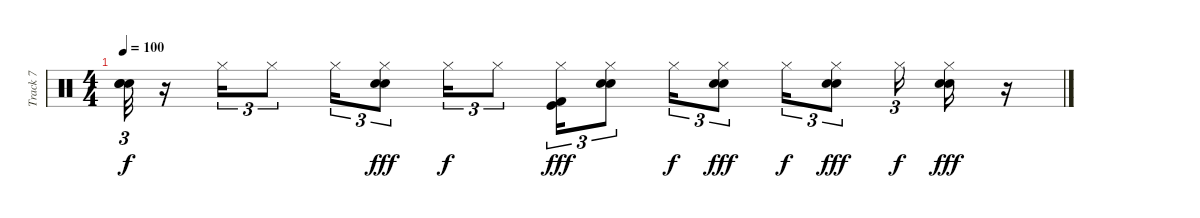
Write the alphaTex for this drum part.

\track ("Track 7" "Track 7") {instrument percussion}
\staff {score}
\articulation defaults
\ts (4 4)
\tempo 100
\clef neutral
\ks c
("Snare (hit)"{t} "Snare (hit)"{t} "Snare (hit)"{t}).32{tu (3 2) dy f} r.16 "Hi-Hat (closed)".16{tu (3 2)} "Hi-Hat (closed)".8{tu (3 2)} "Hi-Hat (closed)".16{tu (3 2)} ("Hi-Hat (closed)" "Snare (hit) 2" "Electric Snare (hit)").8{tu (3 2) dy fff} "Hi-Hat (closed)".16{tu (3 2) dy f} "Hi-Hat (closed)".8{tu (3 2)} ("Kick (hit)" "Kick (hit) 2" "Hi-Hat (closed)").16{tu (3 2) dy fff} ("Electric Snare (hit)" "Snare (hit) 2" "Hi-Hat (closed)").8{tu (3 2)} "Hi-Hat (closed)".16{tu (3 2) dy f} ("Snare (hit) 2" "Electric Snare (hit)" "Hi-Hat (closed)").8{tu (3 2) dy fff} "Hi-Hat (closed)".16{tu (3 2) dy f} ("Snare (hit) 2" "Electric Snare (hit)" "Hi-Hat (closed)").8{tu (3 2) dy fff} "Hi-Hat (closed)".16{tu (3 2) dy f} ("Snare (hit) 2" "Electric Snare (hit)" "Hi-Hat (closed)").16{dy fff} r.16
